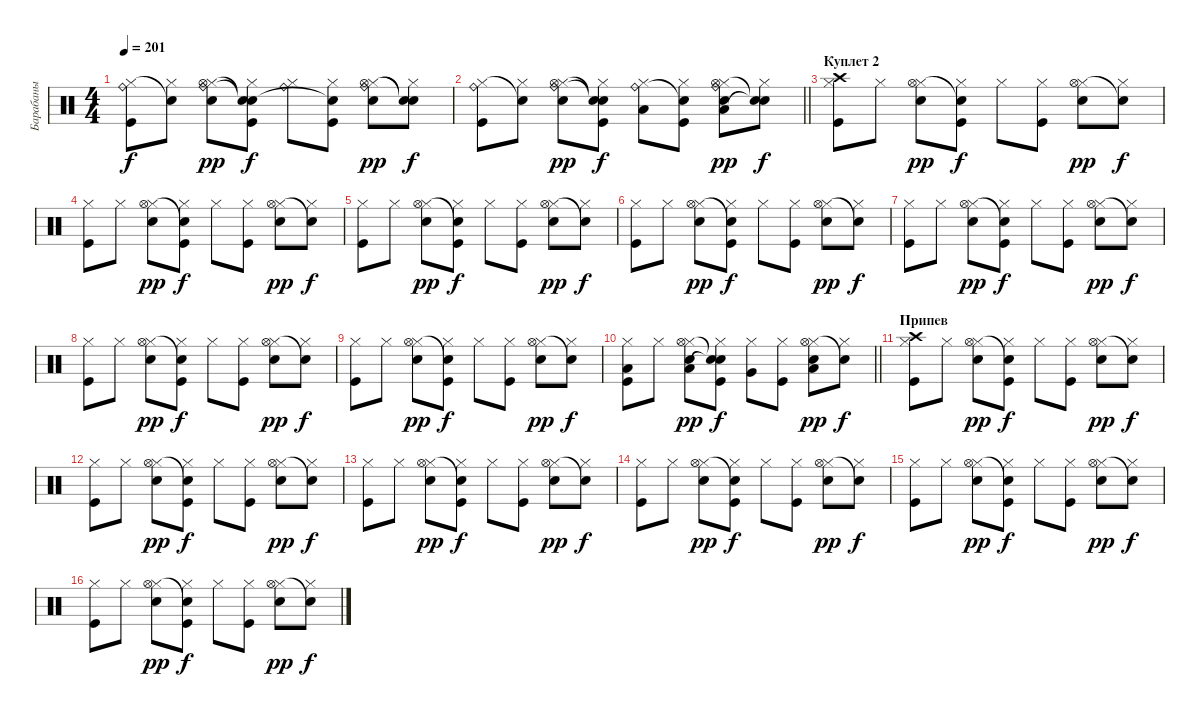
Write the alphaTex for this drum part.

\track ("Барабаны" "Барабаны") {instrument percussion}
\staff {score}
\articulation defaults
\ts (4 4)
\tempo 201
\clef neutral
\ks c
("Kick (hit)" "Hi-Hat (closed)" "Ride (bell)").8{dy f} ("Hi-Hat (closed)" "Snare (hit)"{t}).8 ("Snare (hit) 2" "Hi-Hat (closed)" "Hi-Hat (open)" "Ride (bell)").8{dy pp} ("Kick (hit)" "Hi-Hat (closed)" "Snare (hit)"{t} "Snare (hit)"{t}).8{dy f} ("Hi-Hat (closed)" "Ride (bell)").8 ("Kick (hit)" "Hi-Hat (closed)" "Snare (hit)"{t}).8 ("Snare (hit) 2" "Hi-Hat (closed)" "Hi-Hat (open)" "Ride (bell)").8{dy pp} ("Hi-Hat (closed)" "Snare (hit)"{t} "Snare (hit)"{t}).8{dy f} |
\barLineRight lightlight
("Kick (hit)" "Hi-Hat (closed)" "Ride (bell)").8 ("Hi-Hat (closed)" "Snare (hit)"{t}).8 ("Snare (hit) 2" "Hi-Hat (closed)" "Hi-Hat (open)" "Ride (bell)").8{dy pp} ("Kick (hit)" "Hi-Hat (closed)" "Snare (hit)"{t} "Snare (hit)"{t}).8{dy f} ("Hi-Hat (closed)" "Low Floor Tom (hit)" "Ride (bell)").8 ("Kick (hit)" "Hi-Hat (closed)" "Snare (hit)"{t}).8 ("Snare (hit) 2" "Hi-Hat (closed)" "Low Floor Tom (hit)" "Hi-Hat (open)" "Ride (bell)").8{dy pp} ("Hi-Hat (closed)" "Snare (hit)"{t} "Snare (hit)"{t}).8{dy f} |
\section ("" "Куплет 2")
("Kick (hit)" "Hi-Hat (closed)" "Crash high (hit)").8 "Hi-Hat (closed)".8 ("Snare (hit) 2" "Hi-Hat (closed)" "Hi-Hat (open)").8{dy pp} ("Kick (hit)" "Hi-Hat (closed)" "Snare (hit)"{t}).8{dy f} "Hi-Hat (closed)".8 ("Kick (hit)" "Hi-Hat (closed)").8 ("Snare (hit) 2" "Hi-Hat (closed)" "Hi-Hat (open)").8{dy pp} ("Hi-Hat (closed)" "Snare (hit)"{t}).8{dy f} |
("Kick (hit)" "Hi-Hat (closed)").8 "Hi-Hat (closed)".8 ("Snare (hit) 2" "Hi-Hat (closed)" "Hi-Hat (open)").8{dy pp} ("Kick (hit)" "Hi-Hat (closed)" "Snare (hit)"{t}).8{dy f} "Hi-Hat (closed)".8 ("Kick (hit)" "Hi-Hat (closed)").8 ("Snare (hit) 2" "Hi-Hat (closed)" "Hi-Hat (open)").8{dy pp} ("Hi-Hat (closed)" "Snare (hit)"{t}).8{dy f} |
("Kick (hit)" "Hi-Hat (closed)").8 "Hi-Hat (closed)".8 ("Snare (hit) 2" "Hi-Hat (closed)" "Hi-Hat (open)").8{dy pp} ("Kick (hit)" "Hi-Hat (closed)" "Snare (hit)"{t}).8{dy f} "Hi-Hat (closed)".8 ("Kick (hit)" "Hi-Hat (closed)").8 ("Snare (hit) 2" "Hi-Hat (closed)" "Hi-Hat (open)").8{dy pp} ("Hi-Hat (closed)" "Snare (hit)"{t}).8{dy f} |
("Kick (hit)" "Hi-Hat (closed)").8 "Hi-Hat (closed)".8 ("Snare (hit) 2" "Hi-Hat (closed)" "Hi-Hat (open)").8{dy pp} ("Kick (hit)" "Hi-Hat (closed)" "Snare (hit)"{t}).8{dy f} "Hi-Hat (closed)".8 ("Kick (hit)" "Hi-Hat (closed)").8 ("Snare (hit) 2" "Hi-Hat (closed)" "Hi-Hat (open)").8{dy pp} ("Hi-Hat (closed)" "Snare (hit)"{t}).8{dy f} |
("Kick (hit)" "Hi-Hat (closed)").8 "Hi-Hat (closed)".8 ("Snare (hit) 2" "Hi-Hat (closed)" "Hi-Hat (open)").8{dy pp} ("Kick (hit)" "Hi-Hat (closed)" "Snare (hit)"{t}).8{dy f} "Hi-Hat (closed)".8 ("Kick (hit)" "Hi-Hat (closed)").8 ("Snare (hit) 2" "Hi-Hat (closed)" "Hi-Hat (open)").8{dy pp} ("Hi-Hat (closed)" "Snare (hit)"{t}).8{dy f} |
("Kick (hit)" "Hi-Hat (closed)").8 "Hi-Hat (closed)".8 ("Snare (hit) 2" "Hi-Hat (closed)" "Hi-Hat (open)").8{dy pp} ("Kick (hit)" "Hi-Hat (closed)" "Snare (hit)"{t}).8{dy f} "Hi-Hat (closed)".8 ("Kick (hit)" "Hi-Hat (closed)").8 ("Snare (hit) 2" "Hi-Hat (closed)" "Hi-Hat (open)").8{dy pp} ("Hi-Hat (closed)" "Snare (hit)"{t}).8{dy f} |
("Kick (hit)" "Hi-Hat (closed)").8 "Hi-Hat (closed)".8 ("Snare (hit) 2" "Hi-Hat (closed)" "Hi-Hat (open)").8{dy pp} ("Kick (hit)" "Hi-Hat (closed)" "Snare (hit)"{t}).8{dy f} "Hi-Hat (closed)".8 ("Kick (hit)" "Hi-Hat (closed)").8 ("Snare (hit) 2" "Hi-Hat (closed)" "Hi-Hat (open)").8{dy pp} ("Hi-Hat (closed)" "Snare (hit)"{t}).8{dy f} |
\barLineRight lightlight
("Kick (hit)" "Hi-Hat (closed)" "Low Tom (hit)").8 "Hi-Hat (closed)".8 ("Snare (hit) 2" "Hi-Hat (closed)" "Low Tom (hit)" "Hi-Hat (open)").8{dy pp} ("Kick (hit)" "Hi-Hat (closed)" "Snare (hit)"{t} "Snare (hit)"{t}).8{dy f} ("Hi-Hat (closed)" "Very Low Tom (hit)").8 ("Kick (hit)" "Hi-Hat (closed)").8 ("Snare (hit) 2" "Hi-Hat (closed)" "Low Floor Tom (hit)" "Hi-Hat (open)").8{dy pp} ("Hi-Hat (closed)" "Snare (hit)"{t}).8{dy f} |
\section ("" "Припев")
("Kick (hit)" "Hi-Hat (closed)" "Crash high (hit)").8 "Hi-Hat (closed)".8 ("Snare (hit) 2" "Hi-Hat (closed)" "Hi-Hat (open)").8{dy pp} ("Kick (hit)" "Hi-Hat (closed)" "Snare (hit)"{t}).8{dy f} "Hi-Hat (closed)".8 ("Kick (hit)" "Hi-Hat (closed)").8 ("Snare (hit) 2" "Hi-Hat (closed)" "Hi-Hat (open)").8{dy pp} ("Hi-Hat (closed)" "Snare (hit)"{t}).8{dy f} |
("Kick (hit)" "Hi-Hat (closed)").8 "Hi-Hat (closed)".8 ("Snare (hit) 2" "Hi-Hat (closed)" "Hi-Hat (open)").8{dy pp} ("Kick (hit)" "Hi-Hat (closed)" "Snare (hit)"{t}).8{dy f} "Hi-Hat (closed)".8 ("Kick (hit)" "Hi-Hat (closed)").8 ("Snare (hit) 2" "Hi-Hat (closed)" "Hi-Hat (open)").8{dy pp} ("Hi-Hat (closed)" "Snare (hit)"{t}).8{dy f} |
("Kick (hit)" "Hi-Hat (closed)").8 "Hi-Hat (closed)".8 ("Snare (hit) 2" "Hi-Hat (closed)" "Hi-Hat (open)").8{dy pp} ("Kick (hit)" "Hi-Hat (closed)" "Snare (hit)"{t}).8{dy f} "Hi-Hat (closed)".8 ("Kick (hit)" "Hi-Hat (closed)").8 ("Snare (hit) 2" "Hi-Hat (closed)" "Hi-Hat (open)").8{dy pp} ("Hi-Hat (closed)" "Snare (hit)"{t}).8{dy f} |
("Kick (hit)" "Hi-Hat (closed)").8 "Hi-Hat (closed)".8 ("Snare (hit) 2" "Hi-Hat (closed)" "Hi-Hat (open)").8{dy pp} ("Kick (hit)" "Hi-Hat (closed)" "Snare (hit)"{t}).8{dy f} "Hi-Hat (closed)".8 ("Kick (hit)" "Hi-Hat (closed)").8 ("Snare (hit) 2" "Hi-Hat (closed)" "Hi-Hat (open)").8{dy pp} ("Hi-Hat (closed)" "Snare (hit)"{t}).8{dy f} |
("Kick (hit)" "Hi-Hat (closed)").8 "Hi-Hat (closed)".8 ("Snare (hit) 2" "Hi-Hat (closed)" "Hi-Hat (open)").8{dy pp} ("Kick (hit)" "Hi-Hat (closed)" "Snare (hit)"{t}).8{dy f} "Hi-Hat (closed)".8 ("Kick (hit)" "Hi-Hat (closed)").8 ("Snare (hit) 2" "Hi-Hat (closed)" "Hi-Hat (open)").8{dy pp} ("Hi-Hat (closed)" "Snare (hit)"{t}).8{dy f} |
("Kick (hit)" "Hi-Hat (closed)").8 "Hi-Hat (closed)".8 ("Snare (hit) 2" "Hi-Hat (closed)" "Hi-Hat (open)").8{dy pp} ("Kick (hit)" "Hi-Hat (closed)" "Snare (hit)"{t}).8{dy f} "Hi-Hat (closed)".8 ("Kick (hit)" "Hi-Hat (closed)").8 ("Snare (hit) 2" "Hi-Hat (closed)" "Hi-Hat (open)").8{dy pp} ("Hi-Hat (closed)" "Snare (hit)"{t}).8{dy f}
